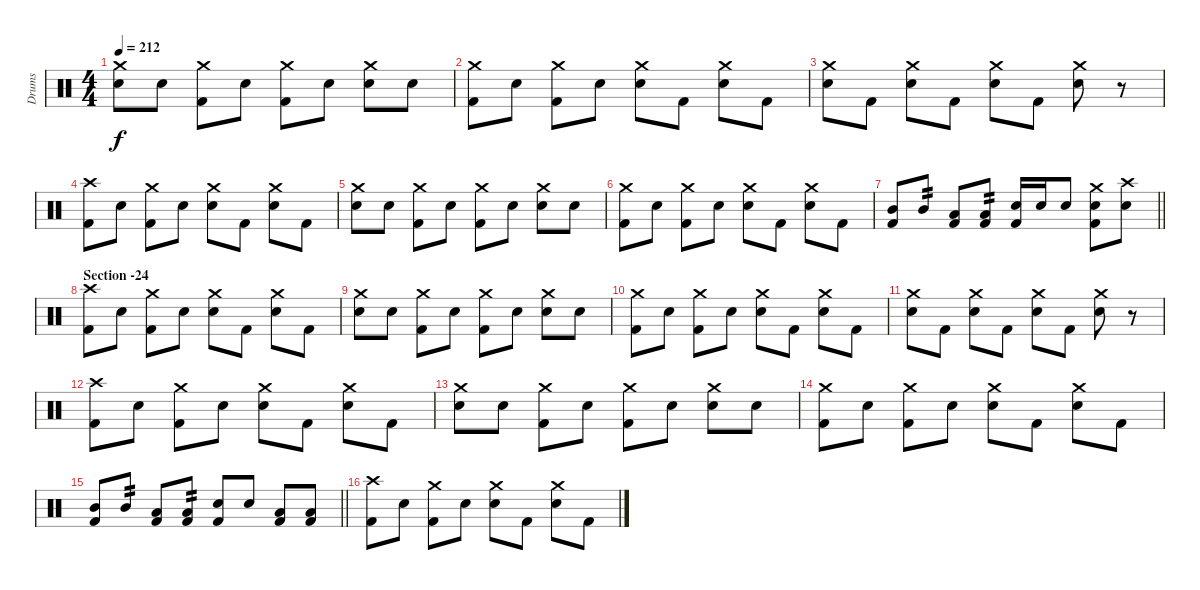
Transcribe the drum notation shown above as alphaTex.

\track ("Drums" "Drums") {instrument percussion}
\staff {score}
\articulation defaults
\ts (4 4)
\tempo 212
\clef neutral
\ks c
("Crash medium (hit)" "Snare (hit) 2").8{dy f} "Snare (hit) 2".8 ("Crash medium (hit)" "Kick (hit) 2").8 "Snare (hit) 2".8 ("Crash medium (hit)" "Kick (hit) 2").8 "Snare (hit) 2".8 ("Crash medium (hit)" "Snare (hit) 2").8 "Snare (hit) 2".8 |
("Crash medium (hit)" "Kick (hit) 2").8 "Snare (hit) 2".8 ("Crash medium (hit)" "Kick (hit) 2").8 "Snare (hit) 2".8 ("Crash medium (hit)" "Snare (hit) 2").8 "Kick (hit) 2".8 ("Crash medium (hit)" "Snare (hit) 2").8 "Kick (hit) 2".8 |
("Crash medium (hit)" "Snare (hit) 2").8 "Kick (hit) 2".8 ("Crash medium (hit)" "Snare (hit) 2").8 "Kick (hit) 2".8 ("Crash medium (hit)" "Snare (hit) 2").8 "Kick (hit) 2".8 ("Crash medium (hit)" "Snare (hit) 2").8 r.8 |
("Crash high (hit)" "Kick (hit) 2").8 "Snare (hit) 2".8 ("Crash medium (hit)" "Kick (hit) 2").8 "Snare (hit) 2".8 ("Crash medium (hit)" "Snare (hit) 2").8 "Kick (hit) 2".8 ("Crash medium (hit)" "Snare (hit) 2").8 "Kick (hit) 2".8 |
("Crash medium (hit)" "Snare (hit) 2").8 "Snare (hit) 2".8 ("Crash medium (hit)" "Kick (hit) 2").8 "Snare (hit) 2".8 ("Crash medium (hit)" "Kick (hit) 2").8 "Snare (hit) 2".8 ("Crash medium (hit)" "Snare (hit) 2").8 "Snare (hit) 2".8 |
("Crash medium (hit)" "Kick (hit) 2").8 "Snare (hit) 2".8 ("Crash medium (hit)" "Kick (hit) 2").8 "Snare (hit) 2".8 ("Crash medium (hit)" "Snare (hit) 2").8 "Kick (hit) 2".8 ("Crash medium (hit)" "Snare (hit) 2").8 "Kick (hit) 2".8 |
\barLineRight lightlight
("Mid Tom (hit)" "Kick (hit) 2").8 "Mid Tom (hit)".8{tp 2} ("Low Tom (hit)" "Kick (hit) 2").8 ("Low Tom (hit)" "Kick (hit) 2").8{tp 2} ("Snare (hit) 2" "Kick (hit) 2").16 "Snare (hit) 2".16 "Snare (hit) 2".8 ("Crash medium (hit)" "Snare (hit) 2" "Kick (hit) 2").8 ("Crash high (hit)" "Snare (hit) 2").8 |
\section ("" "Section -24")
("Crash high (hit)" "Kick (hit) 2").8 "Snare (hit) 2".8 ("Crash medium (hit)" "Kick (hit) 2").8 "Snare (hit) 2".8 ("Crash medium (hit)" "Snare (hit) 2").8 "Kick (hit) 2".8 ("Crash medium (hit)" "Snare (hit) 2").8 "Kick (hit) 2".8 |
("Crash medium (hit)" "Snare (hit) 2").8 "Snare (hit) 2".8 ("Crash medium (hit)" "Kick (hit) 2").8 "Snare (hit) 2".8 ("Crash medium (hit)" "Kick (hit) 2").8 "Snare (hit) 2".8 ("Crash medium (hit)" "Snare (hit) 2").8 "Snare (hit) 2".8 |
("Crash medium (hit)" "Kick (hit) 2").8 "Snare (hit) 2".8 ("Crash medium (hit)" "Kick (hit) 2").8 "Snare (hit) 2".8 ("Crash medium (hit)" "Snare (hit) 2").8 "Kick (hit) 2".8 ("Crash medium (hit)" "Snare (hit) 2").8 "Kick (hit) 2".8 |
("Crash medium (hit)" "Snare (hit) 2").8 "Kick (hit) 2".8 ("Crash medium (hit)" "Snare (hit) 2").8 "Kick (hit) 2".8 ("Crash medium (hit)" "Snare (hit) 2").8 "Kick (hit) 2".8 ("Crash medium (hit)" "Snare (hit) 2").8 r.8 |
("Crash high (hit)" "Kick (hit) 2").8 "Snare (hit) 2".8 ("Crash medium (hit)" "Kick (hit) 2").8 "Snare (hit) 2".8 ("Crash medium (hit)" "Snare (hit) 2").8 "Kick (hit) 2".8 ("Crash medium (hit)" "Snare (hit) 2").8 "Kick (hit) 2".8 |
("Crash medium (hit)" "Snare (hit) 2").8 "Snare (hit) 2".8 ("Crash medium (hit)" "Kick (hit) 2").8 "Snare (hit) 2".8 ("Crash medium (hit)" "Kick (hit) 2").8 "Snare (hit) 2".8 ("Crash medium (hit)" "Snare (hit) 2").8 "Snare (hit) 2".8 |
("Crash medium (hit)" "Kick (hit) 2").8 "Snare (hit) 2".8 ("Crash medium (hit)" "Kick (hit) 2").8 "Snare (hit) 2".8 ("Crash medium (hit)" "Snare (hit) 2").8 "Kick (hit) 2".8 ("Crash medium (hit)" "Snare (hit) 2").8 "Kick (hit) 2".8 |
\barLineRight lightlight
("Mid Tom (hit)" "Kick (hit) 2").8 "Mid Tom (hit)".8{tp 2} ("Low Tom (hit)" "Kick (hit) 2").8 ("Low Tom (hit)" "Kick (hit) 2").8{tp 2} ("Snare (hit) 2" "Kick (hit) 2").8 "Snare (hit) 2".8 ("Low Tom (hit)" "Kick (hit) 2").8 ("Low Tom (hit)" "Kick (hit) 2").8 |
("Crash high (hit)" "Kick (hit) 2").8 "Snare (hit) 2".8 ("Crash medium (hit)" "Kick (hit) 2").8 "Snare (hit) 2".8 ("Crash medium (hit)" "Snare (hit) 2").8 "Kick (hit) 2".8 ("Crash medium (hit)" "Snare (hit) 2").8 "Kick (hit) 2".8
